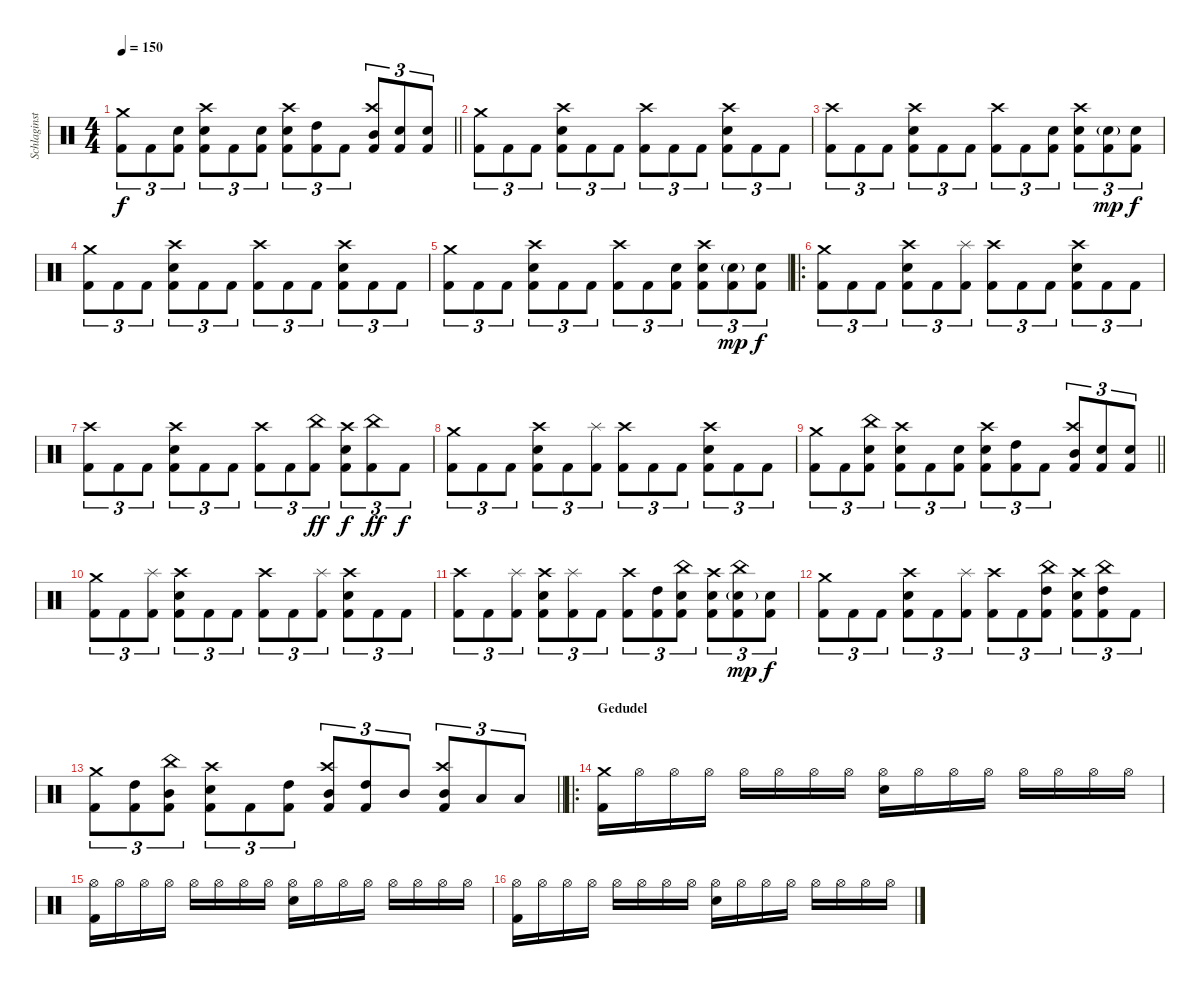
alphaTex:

\track ("Schlaginstrumente - Auswahl" "Schlaginst") {instrument percussion}
\staff {score}
\articulation defaults
\ts (4 4)
\tempo 150
\clef neutral
\barLineRight lightlight
\ks c
("Crash medium (hit)" "Kick (hit) 2").8{tu (3 2) dy f} "Kick (hit) 2".8{tu (3 2)} ("Electric Snare (hit)" "Kick (hit) 2").8{tu (3 2)} ("Crash high (hit)" "Electric Snare (hit)" "Kick (hit) 2").8{tu (3 2)} "Kick (hit) 2".8{tu (3 2)} ("Electric Snare (hit)" "Kick (hit) 2").8{tu (3 2)} ("Crash high (hit)" "Electric Snare (hit)" "Kick (hit) 2").8{tu (3 2)} ("High Tom (hit)" "Kick (hit) 2").8{tu (3 2)} "Kick (hit) 2".8{tu (3 2)} ("Crash high (hit)" "Mid Tom (hit)" "Kick (hit) 2").8{tu (3 2)} ("Electric Snare (hit)" "Kick (hit) 2").8{tu (3 2)} ("Electric Snare (hit)" "Kick (hit) 2").8{tu (3 2)} |
("Crash medium (hit)" "Kick (hit) 2").8{tu (3 2)} "Kick (hit) 2".8{tu (3 2)} "Kick (hit) 2".8{tu (3 2)} ("Crash high (hit)" "Electric Snare (hit)" "Kick (hit) 2").8{tu (3 2)} "Kick (hit) 2".8{tu (3 2)} "Kick (hit) 2".8{tu (3 2)} ("Crash high (hit)" "Kick (hit) 2").8{tu (3 2)} "Kick (hit) 2".8{tu (3 2)} "Kick (hit) 2".8{tu (3 2)} ("Crash high (hit)" "Electric Snare (hit)" "Kick (hit) 2").8{tu (3 2)} "Kick (hit) 2".8{tu (3 2)} "Kick (hit) 2".8{tu (3 2)} |
("Crash high (hit)" "Kick (hit) 2").8{tu (3 2)} "Kick (hit) 2".8{tu (3 2)} "Kick (hit) 2".8{tu (3 2)} ("Crash high (hit)" "Electric Snare (hit)" "Kick (hit) 2").8{tu (3 2)} "Kick (hit) 2".8{tu (3 2)} "Kick (hit) 2".8{tu (3 2)} ("Crash high (hit)" "Kick (hit) 2").8{tu (3 2)} "Kick (hit) 2".8{tu (3 2)} ("Electric Snare (hit)" "Kick (hit) 2").8{tu (3 2)} ("Crash high (hit)" "Electric Snare (hit)" "Kick (hit) 2").8{tu (3 2)} ("Electric Snare (hit)"{g} "Kick (hit) 2").8{tu (3 2) dy mp} ("Electric Snare (hit)" "Kick (hit) 2").8{tu (3 2) dy f} |
("Crash medium (hit)" "Kick (hit) 2").8{tu (3 2)} "Kick (hit) 2".8{tu (3 2)} "Kick (hit) 2".8{tu (3 2)} ("Crash high (hit)" "Electric Snare (hit)" "Kick (hit) 2").8{tu (3 2)} "Kick (hit) 2".8{tu (3 2)} "Kick (hit) 2".8{tu (3 2)} ("Crash high (hit)" "Kick (hit) 2").8{tu (3 2)} "Kick (hit) 2".8{tu (3 2)} "Kick (hit) 2".8{tu (3 2)} ("Crash high (hit)" "Electric Snare (hit)" "Kick (hit) 2").8{tu (3 2)} "Kick (hit) 2".8{tu (3 2)} "Kick (hit) 2".8{tu (3 2)} |
("Crash medium (hit)" "Kick (hit) 2").8{tu (3 2)} "Kick (hit) 2".8{tu (3 2)} "Kick (hit) 2".8{tu (3 2)} ("Crash high (hit)" "Electric Snare (hit)" "Kick (hit) 2").8{tu (3 2)} "Kick (hit) 2".8{tu (3 2)} "Kick (hit) 2".8{tu (3 2)} ("Crash high (hit)" "Kick (hit) 2").8{tu (3 2)} "Kick (hit) 2".8{tu (3 2)} ("Electric Snare (hit)" "Kick (hit) 2").8{tu (3 2)} ("Crash high (hit)" "Electric Snare (hit)" "Kick (hit) 2").8{tu (3 2)} ("Electric Snare (hit)"{g} "Kick (hit) 2").8{tu (3 2) dy mp} ("Electric Snare (hit)" "Kick (hit) 2").8{tu (3 2) dy f} |
\ro
("Crash medium (hit)" "Kick (hit) 2").8{tu (3 2)} "Kick (hit) 2".8{tu (3 2)} "Kick (hit) 2".8{tu (3 2)} ("Crash high (hit)" "Electric Snare (hit)" "Kick (hit) 2").8{tu (3 2)} "Kick (hit) 2".8{tu (3 2)} ("Splash (hit)" "Kick (hit) 2").8{tu (3 2)} ("Crash high (hit)" "Kick (hit) 2").8{tu (3 2)} "Kick (hit) 2".8{tu (3 2)} "Kick (hit) 2".8{tu (3 2)} ("Crash high (hit)" "Electric Snare (hit)" "Kick (hit) 2").8{tu (3 2)} "Kick (hit) 2".8{tu (3 2)} "Kick (hit) 2".8{tu (3 2)} |
("Crash high (hit)" "Kick (hit) 2").8{tu (3 2)} "Kick (hit) 2".8{tu (3 2)} "Kick (hit) 2".8{tu (3 2)} ("Crash high (hit)" "Electric Snare (hit)" "Kick (hit) 2").8{tu (3 2)} "Kick (hit) 2".8{tu (3 2)} "Kick (hit) 2".8{tu (3 2)} ("Crash high (hit)" "Kick (hit) 2").8{tu (3 2)} "Kick (hit) 2".8{tu (3 2)} ("China (hit)" "Kick (hit) 2").8{tu (3 2) dy ff} ("Crash high (hit)" "Electric Snare (hit)" "Kick (hit) 2").8{tu (3 2) dy f} ("China (hit)" "Kick (hit) 2").8{tu (3 2) dy ff} "Kick (hit) 2".8{tu (3 2) dy f} |
("Crash medium (hit)" "Kick (hit) 2").8{tu (3 2)} "Kick (hit) 2".8{tu (3 2)} "Kick (hit) 2".8{tu (3 2)} ("Crash high (hit)" "Electric Snare (hit)" "Kick (hit) 2").8{tu (3 2)} "Kick (hit) 2".8{tu (3 2)} ("Splash (hit)" "Kick (hit) 2").8{tu (3 2)} ("Crash high (hit)" "Kick (hit) 2").8{tu (3 2)} "Kick (hit) 2".8{tu (3 2)} "Kick (hit) 2".8{tu (3 2)} ("Crash high (hit)" "Electric Snare (hit)" "Kick (hit) 2").8{tu (3 2)} "Kick (hit) 2".8{tu (3 2)} "Kick (hit) 2".8{tu (3 2)} |
\barLineRight lightlight
("Crash medium (hit)" "Kick (hit) 2").8{tu (3 2)} "Kick (hit) 2".8{tu (3 2)} ("China (hit)" "Electric Snare (hit)" "Kick (hit) 2").8{tu (3 2)} ("Crash high (hit)" "Electric Snare (hit)" "Kick (hit) 2").8{tu (3 2)} "Kick (hit) 2".8{tu (3 2)} ("Electric Snare (hit)" "Kick (hit) 2").8{tu (3 2)} ("Crash high (hit)" "Electric Snare (hit)" "Kick (hit) 2").8{tu (3 2)} ("High Tom (hit)" "Kick (hit) 2").8{tu (3 2)} "Kick (hit) 2".8{tu (3 2)} ("Crash high (hit)" "Mid Tom (hit)" "Kick (hit) 2").8{tu (3 2)} ("Electric Snare (hit)" "Kick (hit) 2").8{tu (3 2)} ("Electric Snare (hit)" "Kick (hit) 2").8{tu (3 2)} |
("Crash medium (hit)" "Kick (hit) 2").8{tu (3 2)} "Kick (hit) 2".8{tu (3 2)} ("Splash (hit)" "Kick (hit) 2").8{tu (3 2)} ("Crash high (hit)" "Electric Snare (hit)" "Kick (hit) 2").8{tu (3 2)} "Kick (hit) 2".8{tu (3 2)} "Kick (hit) 2".8{tu (3 2)} ("Crash high (hit)" "Kick (hit) 2").8{tu (3 2)} "Kick (hit) 2".8{tu (3 2)} ("Splash (hit)" "Kick (hit) 2").8{tu (3 2)} ("Crash high (hit)" "Electric Snare (hit)" "Kick (hit) 2").8{tu (3 2)} "Kick (hit) 2".8{tu (3 2)} "Kick (hit) 2".8{tu (3 2)} |
("Crash high (hit)" "Kick (hit) 2").8{tu (3 2)} "Kick (hit) 2".8{tu (3 2)} ("Splash (hit)" "Kick (hit) 2").8{tu (3 2)} ("Crash high (hit)" "Electric Snare (hit)" "Kick (hit) 2").8{tu (3 2)} ("Splash (hit)" "Kick (hit) 2").8{tu (3 2)} "Kick (hit) 2".8{tu (3 2)} ("Crash high (hit)" "Kick (hit) 2").8{tu (3 2)} ("High Tom (hit)" "Kick (hit) 2").8{tu (3 2)} ("China (hit)" "Electric Snare (hit)" "Kick (hit) 2").8{tu (3 2)} ("Crash high (hit)" "Electric Snare (hit)" "Kick (hit) 2").8{tu (3 2)} ("China (hit)" "Electric Snare (hit)"{g} "Kick (hit) 2").8{tu (3 2) dy mp} ("Electric Snare (hit)" "Kick (hit) 2").8{tu (3 2) dy f} |
("Crash medium (hit)" "Kick (hit) 2").8{tu (3 2)} "Kick (hit) 2".8{tu (3 2)} "Kick (hit) 2".8{tu (3 2)} ("Crash high (hit)" "Electric Snare (hit)" "Kick (hit) 2").8{tu (3 2)} "Kick (hit) 2".8{tu (3 2)} ("Splash (hit)" "Kick (hit) 2").8{tu (3 2)} ("Crash high (hit)" "Kick (hit) 2").8{tu (3 2)} "Kick (hit) 2".8{tu (3 2)} ("China (hit)" "High Tom (hit)" "Kick (hit) 2").8{tu (3 2)} ("Crash high (hit)" "Electric Snare (hit)" "Kick (hit) 2").8{tu (3 2)} ("China (hit)" "High Tom (hit)" "Kick (hit) 2").8{tu (3 2)} "Kick (hit) 2".8{tu (3 2)} |
\barLineRight lightlight
("Crash medium (hit)" "Kick (hit) 2").8{tu (3 2)} ("High Tom (hit)" "Kick (hit) 2").8{tu (3 2)} ("China (hit)" "Mid Tom (hit)" "Kick (hit) 2").8{tu (3 2)} ("Crash high (hit)" "Electric Snare (hit)" "Kick (hit) 2").8{tu (3 2)} "Kick (hit) 2".8{tu (3 2)} ("High Tom (hit)" "Kick (hit) 2").8{tu (3 2)} ("Crash high (hit)" "Mid Tom (hit)" "Kick (hit) 2").8{tu (3 2)} ("High Tom (hit)" "Kick (hit) 2").8{tu (3 2)} "Mid Tom (hit)".8{tu (3 2)} ("Crash high (hit)" "Mid Tom (hit)" "Kick (hit) 2").8{tu (3 2)} "Low Tom (hit)".8{tu (3 2)} "Low Tom (hit)".8{tu (3 2)} |
\ro
\section ("" "Gedudel")
("Crash medium (hit)" "Kick (hit) 2").16 "Hi-Hat (open)".16 "Hi-Hat (open)".16 "Hi-Hat (open)".16 "Hi-Hat (open)".16 "Hi-Hat (open)".16 "Hi-Hat (open)".16 "Hi-Hat (open)".16 ("Hi-Hat (open)" "Electric Snare (hit)").16 "Hi-Hat (open)".16 "Hi-Hat (open)".16 "Hi-Hat (open)".16 "Hi-Hat (open)".16 "Hi-Hat (open)".16 "Hi-Hat (open)".16 "Hi-Hat (open)".16 |
("Hi-Hat (open)" "Kick (hit) 2").16 "Hi-Hat (open)".16 "Hi-Hat (open)".16 "Hi-Hat (open)".16 "Hi-Hat (open)".16 "Hi-Hat (open)".16 "Hi-Hat (open)".16 "Hi-Hat (open)".16 ("Hi-Hat (open)" "Electric Snare (hit)").16 "Hi-Hat (open)".16 "Hi-Hat (open)".16 "Hi-Hat (open)".16 "Hi-Hat (open)".16 "Hi-Hat (open)".16 "Hi-Hat (open)".16 "Hi-Hat (open)".16 |
("Hi-Hat (open)" "Kick (hit) 2").16 "Hi-Hat (open)".16 "Hi-Hat (open)".16 "Hi-Hat (open)".16 "Hi-Hat (open)".16 "Hi-Hat (open)".16 "Hi-Hat (open)".16 "Hi-Hat (open)".16 ("Hi-Hat (open)" "Electric Snare (hit)").16 "Hi-Hat (open)".16 "Hi-Hat (open)".16 "Hi-Hat (open)".16 "Hi-Hat (open)".16 "Hi-Hat (open)".16 "Hi-Hat (open)".16 "Hi-Hat (open)".16
